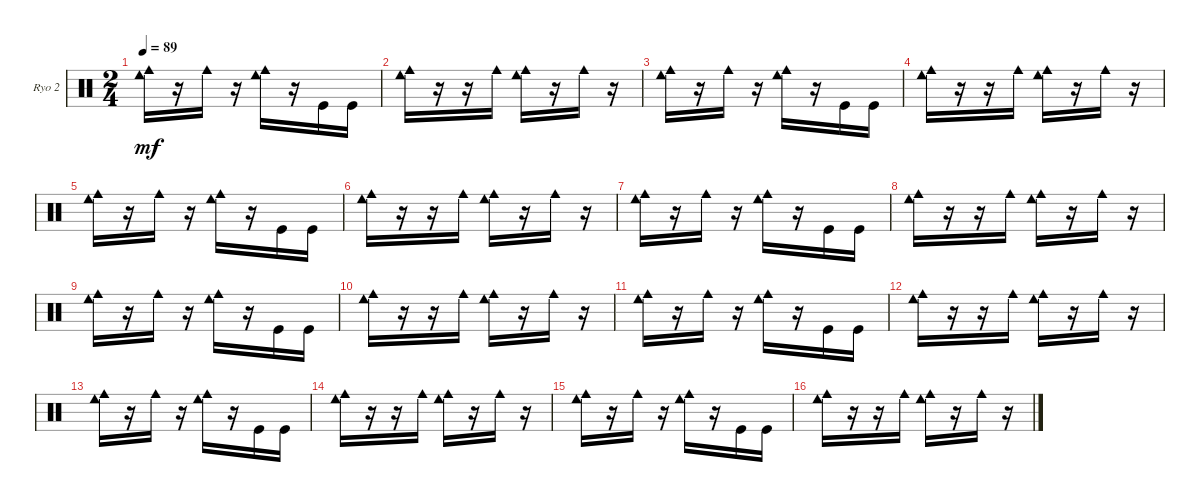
\bracketExtendMode groupsimilarinstruments
\firstSystemTrackNameOrientation horizontal
\otherSystemsTrackNameOrientation horizontal
\track ("Ryo2 [Additional Drums]" "Ryo 2") {instrument percussion}
\staff {score}
\articulation defaults
\ts (2 4)
\tempo 89
\clef neutral
\ks c
("Cowbell low (hit)" "Cowbell medium (hit)").16{dy mf} r.16 "Cowbell medium (hit)".16 r.16 ("Cowbell medium (hit)" "Cowbell low (hit)").16 r.16 "Kick (hit)".16 "Kick (hit)".16 |
("Cowbell low (hit)" "Cowbell medium (hit)").16 r.16 r.16 "Cowbell medium (hit)".16 ("Cowbell medium (hit)" "Cowbell low (hit)").16 r.16 "Cowbell medium (hit)".16 r.16 |
("Cowbell low (hit)" "Cowbell medium (hit)").16 r.16 "Cowbell medium (hit)".16 r.16 ("Cowbell medium (hit)" "Cowbell low (hit)").16 r.16 "Kick (hit)".16 "Kick (hit)".16 |
("Cowbell low (hit)" "Cowbell medium (hit)").16 r.16 r.16 "Cowbell medium (hit)".16 ("Cowbell medium (hit)" "Cowbell low (hit)").16 r.16 "Cowbell medium (hit)".16 r.16 |
("Cowbell low (hit)" "Cowbell medium (hit)").16 r.16 "Cowbell medium (hit)".16 r.16 ("Cowbell medium (hit)" "Cowbell low (hit)").16 r.16 "Kick (hit)".16 "Kick (hit)".16 |
("Cowbell low (hit)" "Cowbell medium (hit)").16 r.16 r.16 "Cowbell medium (hit)".16 ("Cowbell medium (hit)" "Cowbell low (hit)").16 r.16 "Cowbell medium (hit)".16 r.16 |
("Cowbell low (hit)" "Cowbell medium (hit)").16 r.16 "Cowbell medium (hit)".16 r.16 ("Cowbell medium (hit)" "Cowbell low (hit)").16 r.16 "Kick (hit)".16 "Kick (hit)".16 |
("Cowbell low (hit)" "Cowbell medium (hit)").16 r.16 r.16 "Cowbell medium (hit)".16 ("Cowbell medium (hit)" "Cowbell low (hit)").16 r.16 "Cowbell medium (hit)".16 r.16 |
("Cowbell low (hit)" "Cowbell medium (hit)").16 r.16 "Cowbell medium (hit)".16 r.16 ("Cowbell medium (hit)" "Cowbell low (hit)").16 r.16 "Kick (hit)".16 "Kick (hit)".16 |
("Cowbell low (hit)" "Cowbell medium (hit)").16 r.16 r.16 "Cowbell medium (hit)".16 ("Cowbell medium (hit)" "Cowbell low (hit)").16 r.16 "Cowbell medium (hit)".16 r.16 |
("Cowbell low (hit)" "Cowbell medium (hit)").16 r.16 "Cowbell medium (hit)".16 r.16 ("Cowbell medium (hit)" "Cowbell low (hit)").16 r.16 "Kick (hit)".16 "Kick (hit)".16 |
("Cowbell low (hit)" "Cowbell medium (hit)").16 r.16 r.16 "Cowbell medium (hit)".16 ("Cowbell medium (hit)" "Cowbell low (hit)").16 r.16 "Cowbell medium (hit)".16 r.16 |
("Cowbell low (hit)" "Cowbell medium (hit)").16 r.16 "Cowbell medium (hit)".16 r.16 ("Cowbell medium (hit)" "Cowbell low (hit)").16 r.16 "Kick (hit)".16 "Kick (hit)".16 |
("Cowbell low (hit)" "Cowbell medium (hit)").16 r.16 r.16 "Cowbell medium (hit)".16 ("Cowbell medium (hit)" "Cowbell low (hit)").16 r.16 "Cowbell medium (hit)".16 r.16 |
("Cowbell low (hit)" "Cowbell medium (hit)").16 r.16 "Cowbell medium (hit)".16 r.16 ("Cowbell medium (hit)" "Cowbell low (hit)").16 r.16 "Kick (hit)".16 "Kick (hit)".16 |
("Cowbell low (hit)" "Cowbell medium (hit)").16 r.16 r.16 "Cowbell medium (hit)".16 ("Cowbell medium (hit)" "Cowbell low (hit)").16 r.16 "Cowbell medium (hit)".16 r.16
